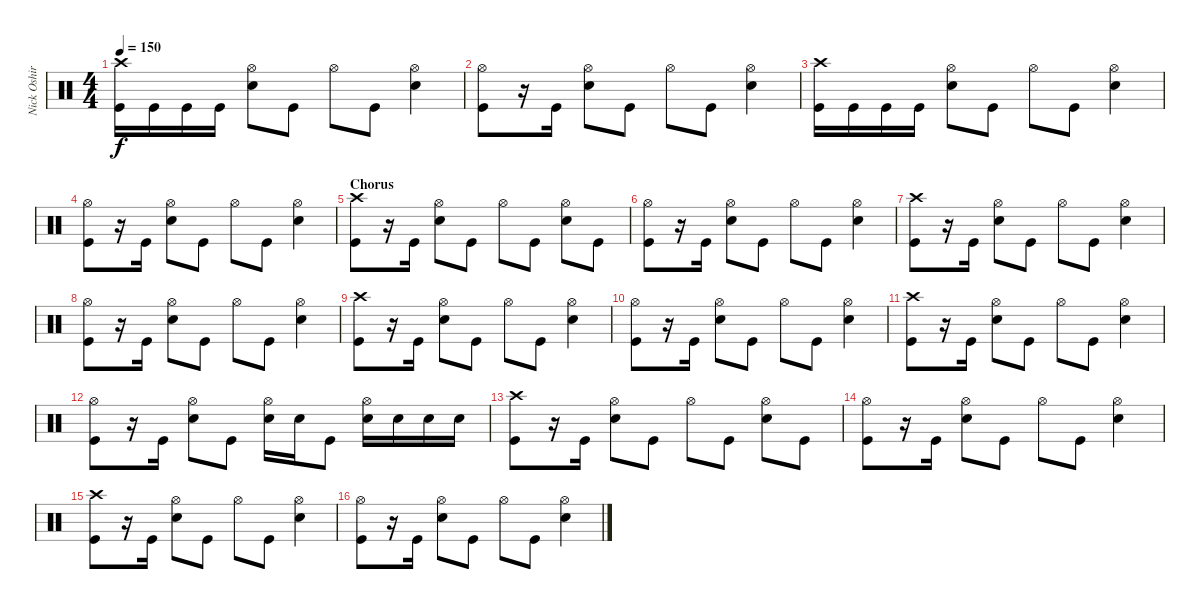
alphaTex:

\track ("Nick Oshiro" "Nick Oshir") {instrument percussion}
\staff {score}
\articulation defaults
\ts (4 4)
\tempo 150
\clef neutral
\ks c
("Crash high (hit)" "Kick (hit)").16{dy f} "Kick (hit)".16 "Kick (hit)".16 "Kick (hit)".16 ("Hi-Hat (open)" "Snare (hit) 2").8 "Kick (hit)".8 "Hi-Hat (open)".8 "Kick (hit)".8 ("Hi-Hat (open)" "Snare (hit) 2").4 |
("Hi-Hat (open)" "Kick (hit)").8 r.16 "Kick (hit)".16 ("Hi-Hat (open)" "Snare (hit) 2").8 "Kick (hit)".8 "Hi-Hat (open)".8 "Kick (hit)".8 ("Hi-Hat (open)" "Snare (hit) 2").4 |
("Crash high (hit)" "Kick (hit)").16 "Kick (hit)".16 "Kick (hit)".16 "Kick (hit)".16 ("Hi-Hat (open)" "Snare (hit) 2").8 "Kick (hit)".8 "Hi-Hat (open)".8 "Kick (hit)".8 ("Hi-Hat (open)" "Snare (hit) 2").4 |
("Hi-Hat (open)" "Kick (hit)").8 r.16 "Kick (hit)".16 ("Hi-Hat (open)" "Snare (hit) 2").8 "Kick (hit)".8 "Hi-Hat (open)".8 "Kick (hit)".8 ("Hi-Hat (open)" "Snare (hit) 2").4 |
\section ("" "Chorus")
("Crash high (hit)" "Kick (hit)").8 r.16 "Kick (hit)".16 ("Hi-Hat (open)" "Snare (hit) 2").8 "Kick (hit)".8 "Hi-Hat (open)".8 "Kick (hit)".8 ("Hi-Hat (open)" "Snare (hit) 2").8 "Kick (hit)".8 |
("Hi-Hat (open)" "Kick (hit)").8 r.16 "Kick (hit)".16 ("Hi-Hat (open)" "Snare (hit) 2").8 "Kick (hit)".8 "Hi-Hat (open)".8 "Kick (hit)".8 ("Hi-Hat (open)" "Snare (hit) 2").4 |
("Crash high (hit)" "Kick (hit)").8 r.16 "Kick (hit)".16 ("Hi-Hat (open)" "Snare (hit) 2").8 "Kick (hit)".8 "Hi-Hat (open)".8 "Kick (hit)".8 ("Hi-Hat (open)" "Snare (hit) 2").4 |
("Hi-Hat (open)" "Kick (hit)").8 r.16 "Kick (hit)".16 ("Hi-Hat (open)" "Snare (hit) 2").8 "Kick (hit)".8 "Hi-Hat (open)".8 "Kick (hit)".8 ("Hi-Hat (open)" "Snare (hit) 2").4 |
("Crash high (hit)" "Kick (hit)").8 r.16 "Kick (hit)".16 ("Hi-Hat (open)" "Snare (hit) 2").8 "Kick (hit)".8 "Hi-Hat (open)".8 "Kick (hit)".8 ("Hi-Hat (open)" "Snare (hit) 2").4 |
("Hi-Hat (open)" "Kick (hit)").8 r.16 "Kick (hit)".16 ("Hi-Hat (open)" "Snare (hit) 2").8 "Kick (hit)".8 "Hi-Hat (open)".8 "Kick (hit)".8 ("Hi-Hat (open)" "Snare (hit) 2").4 |
("Crash high (hit)" "Kick (hit)").8 r.16 "Kick (hit)".16 ("Hi-Hat (open)" "Snare (hit) 2").8 "Kick (hit)".8 "Hi-Hat (open)".8 "Kick (hit)".8 ("Hi-Hat (open)" "Snare (hit) 2").4 |
("Hi-Hat (open)" "Kick (hit)").8 r.16 "Kick (hit)".16 ("Hi-Hat (open)" "Snare (hit) 2").8 "Kick (hit)".8 ("Hi-Hat (open)" "Snare (hit) 2").16 "Snare (hit) 2".16 "Kick (hit)".8 ("Hi-Hat (open)" "Snare (hit) 2").16 "Snare (hit) 2".16 "Snare (hit) 2".16 "Snare (hit) 2".16 |
("Crash high (hit)" "Kick (hit)").8 r.16 "Kick (hit)".16 ("Hi-Hat (open)" "Snare (hit) 2").8 "Kick (hit)".8 "Hi-Hat (open)".8 "Kick (hit)".8 ("Hi-Hat (open)" "Snare (hit) 2").8 "Kick (hit)".8 |
("Hi-Hat (open)" "Kick (hit)").8 r.16 "Kick (hit)".16 ("Hi-Hat (open)" "Snare (hit) 2").8 "Kick (hit)".8 "Hi-Hat (open)".8 "Kick (hit)".8 ("Hi-Hat (open)" "Snare (hit) 2").4 |
("Crash high (hit)" "Kick (hit)").8 r.16 "Kick (hit)".16 ("Hi-Hat (open)" "Snare (hit) 2").8 "Kick (hit)".8 "Hi-Hat (open)".8 "Kick (hit)".8 ("Hi-Hat (open)" "Snare (hit) 2").4 |
("Hi-Hat (open)" "Kick (hit)").8 r.16 "Kick (hit)".16 ("Hi-Hat (open)" "Snare (hit) 2").8 "Kick (hit)".8 "Hi-Hat (open)".8 "Kick (hit)".8 ("Hi-Hat (open)" "Snare (hit) 2").4
